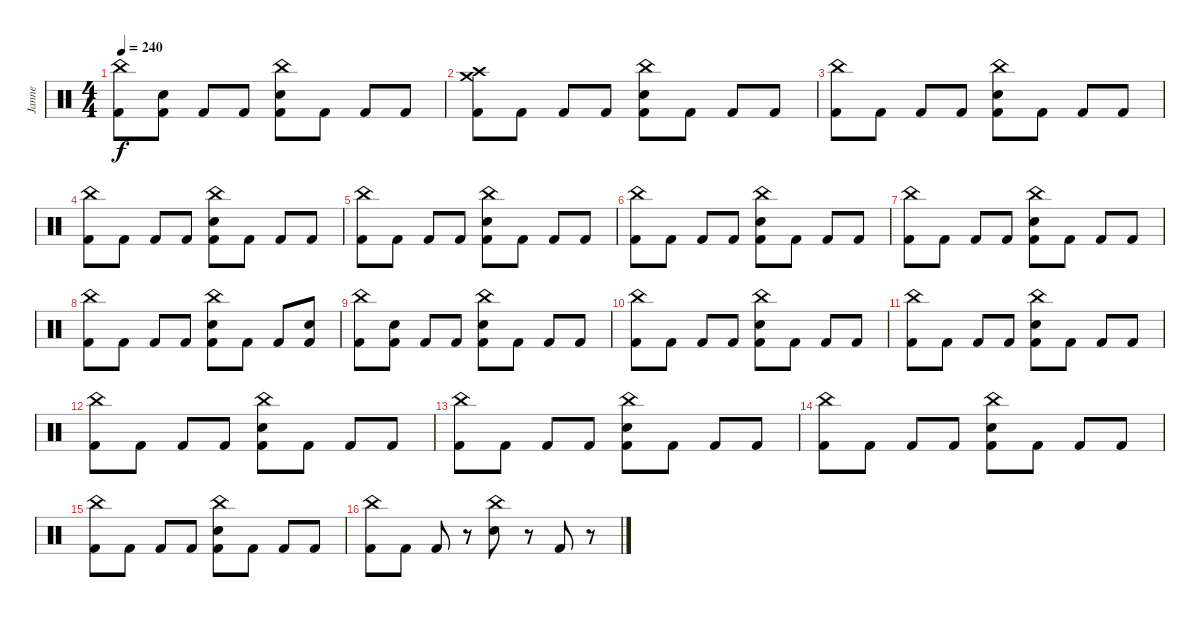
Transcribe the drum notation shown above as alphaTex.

\track ("Janne" "Janne") {instrument percussion}
\staff {score}
\articulation defaults
\ts (4 4)
\tempo 240
\clef neutral
\ks c
("China (hit)" "Kick (hit) 2").8{dy f} ("Electric Snare (hit)" "Kick (hit) 2").8 "Kick (hit) 2".8 "Kick (hit) 2".8 ("China (hit)" "Electric Snare (hit)" "Kick (hit) 2").8 "Kick (hit) 2".8 "Kick (hit) 2".8 "Kick (hit) 2".8 |
("Crash high (hit)" "Crash medium (hit)" "Kick (hit) 2").8 "Kick (hit) 2".8 "Kick (hit) 2".8 "Kick (hit) 2".8 ("China (hit)" "Electric Snare (hit)" "Kick (hit) 2").8 "Kick (hit) 2".8 "Kick (hit) 2".8 "Kick (hit) 2".8 |
("China (hit)" "Kick (hit) 2").8 "Kick (hit) 2".8 "Kick (hit) 2".8 "Kick (hit) 2".8 ("China (hit)" "Electric Snare (hit)" "Kick (hit) 2").8 "Kick (hit) 2".8 "Kick (hit) 2".8 "Kick (hit) 2".8 |
("China (hit)" "Kick (hit) 2").8 "Kick (hit) 2".8 "Kick (hit) 2".8 "Kick (hit) 2".8 ("China (hit)" "Electric Snare (hit)" "Kick (hit) 2").8 "Kick (hit) 2".8 "Kick (hit) 2".8 "Kick (hit) 2".8 |
("China (hit)" "Kick (hit) 2").8 "Kick (hit) 2".8 "Kick (hit) 2".8 "Kick (hit) 2".8 ("China (hit)" "Electric Snare (hit)" "Kick (hit) 2").8 "Kick (hit) 2".8 "Kick (hit) 2".8 "Kick (hit) 2".8 |
("China (hit)" "Kick (hit) 2").8 "Kick (hit) 2".8 "Kick (hit) 2".8 "Kick (hit) 2".8 ("China (hit)" "Electric Snare (hit)" "Kick (hit) 2").8 "Kick (hit) 2".8 "Kick (hit) 2".8 "Kick (hit) 2".8 |
("China (hit)" "Kick (hit) 2").8 "Kick (hit) 2".8 "Kick (hit) 2".8 "Kick (hit) 2".8 ("China (hit)" "Electric Snare (hit)" "Kick (hit) 2").8 "Kick (hit) 2".8 "Kick (hit) 2".8 "Kick (hit) 2".8 |
("China (hit)" "Kick (hit) 2").8 "Kick (hit) 2".8 "Kick (hit) 2".8 "Kick (hit) 2".8 ("China (hit)" "Electric Snare (hit)" "Kick (hit) 2").8 "Kick (hit) 2".8 "Kick (hit) 2".8 ("Electric Snare (hit)" "Kick (hit) 2").8 |
("China (hit)" "Kick (hit) 2").8 ("Electric Snare (hit)" "Kick (hit) 2").8 "Kick (hit) 2".8 "Kick (hit) 2".8 ("China (hit)" "Electric Snare (hit)" "Kick (hit) 2").8 "Kick (hit) 2".8 "Kick (hit) 2".8 "Kick (hit) 2".8 |
("China (hit)" "Kick (hit) 2").8 "Kick (hit) 2".8 "Kick (hit) 2".8 "Kick (hit) 2".8 ("China (hit)" "Electric Snare (hit)" "Kick (hit) 2").8 "Kick (hit) 2".8 "Kick (hit) 2".8 "Kick (hit) 2".8 |
("China (hit)" "Kick (hit) 2").8 "Kick (hit) 2".8 "Kick (hit) 2".8 "Kick (hit) 2".8 ("China (hit)" "Electric Snare (hit)" "Kick (hit) 2").8 "Kick (hit) 2".8 "Kick (hit) 2".8 "Kick (hit) 2".8 |
("China (hit)" "Kick (hit) 2").8 "Kick (hit) 2".8 "Kick (hit) 2".8 "Kick (hit) 2".8 ("China (hit)" "Electric Snare (hit)" "Kick (hit) 2").8 "Kick (hit) 2".8 "Kick (hit) 2".8 "Kick (hit) 2".8 |
("China (hit)" "Kick (hit) 2").8 "Kick (hit) 2".8 "Kick (hit) 2".8 "Kick (hit) 2".8 ("China (hit)" "Electric Snare (hit)" "Kick (hit) 2").8 "Kick (hit) 2".8 "Kick (hit) 2".8 "Kick (hit) 2".8 |
("China (hit)" "Kick (hit) 2").8 "Kick (hit) 2".8 "Kick (hit) 2".8 "Kick (hit) 2".8 ("China (hit)" "Electric Snare (hit)" "Kick (hit) 2").8 "Kick (hit) 2".8 "Kick (hit) 2".8 "Kick (hit) 2".8 |
("China (hit)" "Kick (hit) 2").8 "Kick (hit) 2".8 "Kick (hit) 2".8 "Kick (hit) 2".8 ("China (hit)" "Electric Snare (hit)" "Kick (hit) 2").8 "Kick (hit) 2".8 "Kick (hit) 2".8 "Kick (hit) 2".8 |
("China (hit)" "Kick (hit) 2").8 "Kick (hit) 2".8 "Kick (hit) 2".8 r.8 ("China (hit)" "Electric Snare (hit)").8 r.8 "Kick (hit) 2".8 r.8
